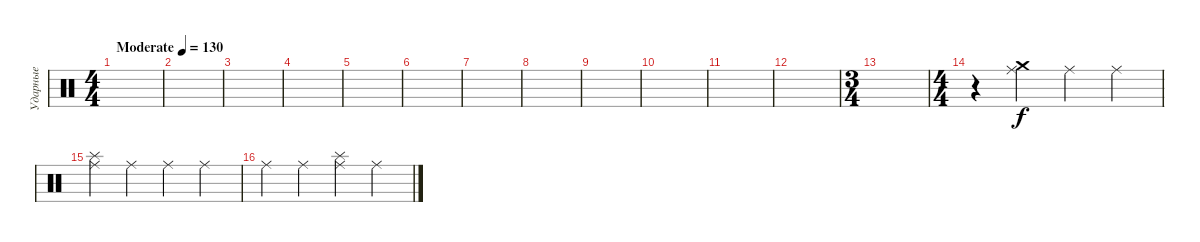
\track ("Ударные" "Ударные") {instrument percussion}
\staff {score}
\articulation defaults
\ts (4 4)
\tempo (130 "Moderate")
\clef neutral
\ks c
|
|
|
|
|
|
|
|
|
|
|
|
\ts (3 4)
|
\ts (4 4)
r.4 ("Crash medium (hit)" "Ride (middle)").4 "Ride (middle)".4 "Ride (middle)".4 |
("Splash (hit)" "Ride (middle)").4 "Ride (middle)".4 "Ride (middle)".4 "Ride (middle)".4 |
"Ride (middle)".4 "Ride (middle)".4 ("Splash (hit)" "Ride (middle)").4 "Ride (middle)".4
